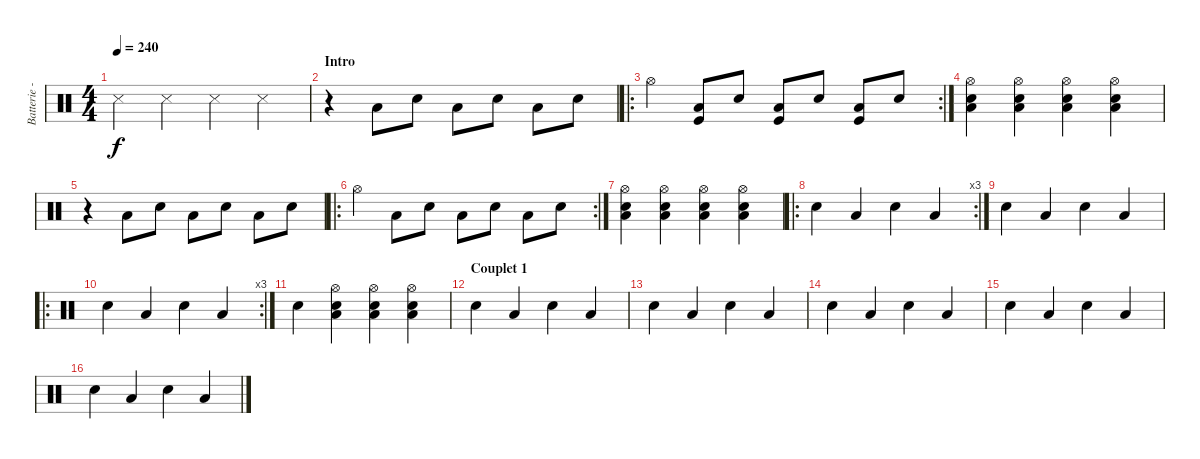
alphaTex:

\track ("Batterie - Guillaume" "Batterie -") {instrument percussion}
\staff {score}
\articulation defaults
\ts (4 4)
\tempo 240
\clef neutral
\ks c "Snare (side stick) 3".4{dy f} "Snare (side stick) 3".4 "Snare (side stick) 3".4 "Snare (side stick) 3".4
|
\section ("" "Intro")
r.4 "Low Tom (hit)".8 "Electric Snare (hit)".8 "Low Tom (hit)".8 "Electric Snare (hit)".8 "Low Tom (hit)".8 "Electric Snare (hit)".8 |
\ro
\rc 2 "Hi-Hat (open)".4
("Low Tom (hit)" "Kick (hit)").8 "Electric Snare (hit)".8 ("Low Tom (hit)" "Kick (hit)").8 "Electric Snare (hit)".8 ("Low Tom (hit)" "Kick (hit)").8 "Electric Snare (hit)".8 |
("Hi-Hat (open)" "Low Tom (hit)" "Electric Snare (hit)").4 ("Hi-Hat (open)" "Low Tom (hit)" "Electric Snare (hit)").4 ("Hi-Hat (open)" "Low Tom (hit)" "Electric Snare (hit)").4 ("Hi-Hat (open)" "Low Tom (hit)" "Electric Snare (hit)").4 |
r.4 "Low Tom (hit)".8 "Electric Snare (hit)".8 "Low Tom (hit)".8 "Electric Snare (hit)".8 "Low Tom (hit)".8 "Electric Snare (hit)".8 |
\ro
\rc 2 "Hi-Hat (open)".4 "Low Tom (hit)".8 "Electric Snare (hit)".8 "Low Tom (hit)".8 "Electric Snare (hit)".8 "Low Tom (hit)".8 "Electric Snare (hit)".8
|
("Hi-Hat (open)" "Low Tom (hit)" "Electric Snare (hit)").4 ("Hi-Hat (open)" "Low Tom (hit)" "Electric Snare (hit)").4 ("Hi-Hat (open)" "Low Tom (hit)" "Electric Snare (hit)").4 ("Hi-Hat (open)" "Low Tom (hit)" "Electric Snare (hit)").4 |
\ro
\rc 3 "Electric Snare (hit)".4 "Low Tom (hit)".4 "Electric Snare (hit)".4 "Low Tom (hit)".4
|
"Electric Snare (hit)".4 "Low Tom (hit)".4 "Electric Snare (hit)".4 "Low Tom (hit)".4 |
\ro
\rc 3 "Electric Snare (hit)".4 "Low Tom (hit)".4 "Electric Snare (hit)".4 "Low Tom (hit)".4
|
"Electric Snare (hit)".4 ("Hi-Hat (open)" "Low Tom (hit)" "Electric Snare (hit)").4 ("Hi-Hat (open)" "Low Tom (hit)" "Electric Snare (hit)").4 ("Hi-Hat (open)" "Low Tom (hit)" "Electric Snare (hit)").4 |
\section ("" "Couplet 1")
"Electric Snare (hit)".4 "Low Tom (hit)".4 "Electric Snare (hit)".4 "Low Tom (hit)".4 |
"Electric Snare (hit)".4 "Low Tom (hit)".4 "Electric Snare (hit)".4 "Low Tom (hit)".4 |
"Electric Snare (hit)".4 "Low Tom (hit)".4 "Electric Snare (hit)".4 "Low Tom (hit)".4 |
"Electric Snare (hit)".4 "Low Tom (hit)".4 "Electric Snare (hit)".4 "Low Tom (hit)".4 |
"Electric Snare (hit)".4 "Low Tom (hit)".4 "Electric Snare (hit)".4 "Low Tom (hit)".4
